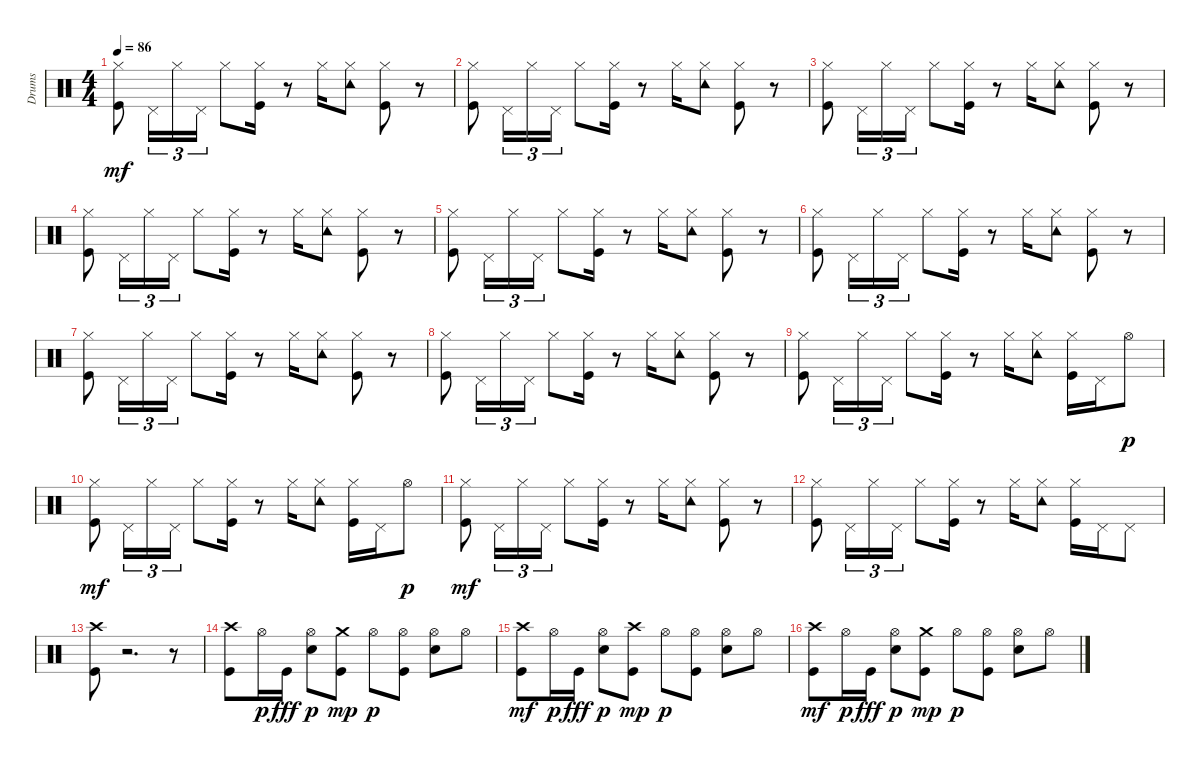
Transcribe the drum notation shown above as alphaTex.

\track ("Drums" "Drums") {instrument percussion}
\staff {score}
\articulation defaults
\ts (4 4)
\tempo 86
\clef neutral
\ks c
("Kick (hit)" "Hi-Hat (closed)").8{dy mf} "Pedal Hi-Hat (hit)".16{tu (3 2)} "Hi-Hat (closed)".16{tu (3 2)} "Pedal Hi-Hat (hit)".16{tu (3 2)} "Hi-Hat (closed)".8 ("Kick (hit)" "Hi-Hat (closed)").16 r.8 "Hi-Hat (closed)".16 ("Hi-Hat (closed)" "Tambourine (hit)").8 ("Kick (hit)" "Hi-Hat (closed)").8 r.8 |
("Kick (hit)" "Hi-Hat (closed)").8 "Pedal Hi-Hat (hit)".16{tu (3 2)} "Hi-Hat (closed)".16{tu (3 2)} "Pedal Hi-Hat (hit)".16{tu (3 2)} "Hi-Hat (closed)".8 ("Kick (hit)" "Hi-Hat (closed)").16 r.8 "Hi-Hat (closed)".16 ("Hi-Hat (closed)" "Tambourine (hit)").8 ("Kick (hit)" "Hi-Hat (closed)").8 r.8 |
("Kick (hit)" "Hi-Hat (closed)").8 "Pedal Hi-Hat (hit)".16{tu (3 2)} "Hi-Hat (closed)".16{tu (3 2)} "Pedal Hi-Hat (hit)".16{tu (3 2)} "Hi-Hat (closed)".8 ("Kick (hit)" "Hi-Hat (closed)").16 r.8 "Hi-Hat (closed)".16 ("Hi-Hat (closed)" "Tambourine (hit)").8 ("Kick (hit)" "Hi-Hat (closed)").8 r.8 |
("Kick (hit)" "Hi-Hat (closed)").8 "Pedal Hi-Hat (hit)".16{tu (3 2)} "Hi-Hat (closed)".16{tu (3 2)} "Pedal Hi-Hat (hit)".16{tu (3 2)} "Hi-Hat (closed)".8 ("Kick (hit)" "Hi-Hat (closed)").16 r.8 "Hi-Hat (closed)".16 ("Hi-Hat (closed)" "Tambourine (hit)").8 ("Kick (hit)" "Hi-Hat (closed)").8 r.8 |
("Kick (hit)" "Hi-Hat (closed)").8 "Pedal Hi-Hat (hit)".16{tu (3 2)} "Hi-Hat (closed)".16{tu (3 2)} "Pedal Hi-Hat (hit)".16{tu (3 2)} "Hi-Hat (closed)".8 ("Kick (hit)" "Hi-Hat (closed)").16 r.8 "Hi-Hat (closed)".16 ("Hi-Hat (closed)" "Tambourine (hit)").8 ("Kick (hit)" "Hi-Hat (closed)").8 r.8 |
("Kick (hit)" "Hi-Hat (closed)").8 "Pedal Hi-Hat (hit)".16{tu (3 2)} "Hi-Hat (closed)".16{tu (3 2)} "Pedal Hi-Hat (hit)".16{tu (3 2)} "Hi-Hat (closed)".8 ("Kick (hit)" "Hi-Hat (closed)").16 r.8 "Hi-Hat (closed)".16 ("Hi-Hat (closed)" "Tambourine (hit)").8 ("Kick (hit)" "Hi-Hat (closed)").8 r.8 |
("Kick (hit)" "Hi-Hat (closed)").8 "Pedal Hi-Hat (hit)".16{tu (3 2)} "Hi-Hat (closed)".16{tu (3 2)} "Pedal Hi-Hat (hit)".16{tu (3 2)} "Hi-Hat (closed)".8 ("Kick (hit)" "Hi-Hat (closed)").16 r.8 "Hi-Hat (closed)".16 ("Hi-Hat (closed)" "Tambourine (hit)").8 ("Kick (hit)" "Hi-Hat (closed)").8 r.8 |
("Kick (hit)" "Hi-Hat (closed)").8 "Pedal Hi-Hat (hit)".16{tu (3 2)} "Hi-Hat (closed)".16{tu (3 2)} "Pedal Hi-Hat (hit)".16{tu (3 2)} "Hi-Hat (closed)".8 ("Kick (hit)" "Hi-Hat (closed)").16 r.8 "Hi-Hat (closed)".16 ("Hi-Hat (closed)" "Tambourine (hit)").8 ("Kick (hit)" "Hi-Hat (closed)").8 r.8 |
("Kick (hit)" "Hi-Hat (closed)").8 "Pedal Hi-Hat (hit)".16{tu (3 2)} "Hi-Hat (closed)".16{tu (3 2)} "Pedal Hi-Hat (hit)".16{tu (3 2)} "Hi-Hat (closed)".8 ("Kick (hit)" "Hi-Hat (closed)").16 r.8 "Hi-Hat (closed)".16 ("Hi-Hat (closed)" "Tambourine (hit)").8 ("Kick (hit)" "Hi-Hat (closed)").16 "Pedal Hi-Hat (hit)".16 "Hi-Hat (open)".8{dy p} |
("Kick (hit)" "Hi-Hat (closed)").8{dy mf} "Pedal Hi-Hat (hit)".16{tu (3 2)} "Hi-Hat (closed)".16{tu (3 2)} "Pedal Hi-Hat (hit)".16{tu (3 2)} "Hi-Hat (closed)".8 ("Kick (hit)" "Hi-Hat (closed)").16 r.8 "Hi-Hat (closed)".16 ("Hi-Hat (closed)" "Tambourine (hit)").8 ("Kick (hit)" "Hi-Hat (closed)").16 "Pedal Hi-Hat (hit)".16 "Hi-Hat (open)".8{dy p} |
("Kick (hit)" "Hi-Hat (closed)").8{dy mf} "Pedal Hi-Hat (hit)".16{tu (3 2)} "Hi-Hat (closed)".16{tu (3 2)} "Pedal Hi-Hat (hit)".16{tu (3 2)} "Hi-Hat (closed)".8 ("Kick (hit)" "Hi-Hat (closed)").16 r.8 "Hi-Hat (closed)".16 ("Hi-Hat (closed)" "Tambourine (hit)").8 ("Kick (hit)" "Hi-Hat (closed)").8 r.8 |
("Kick (hit)" "Hi-Hat (closed)").8 "Pedal Hi-Hat (hit)".16{tu (3 2)} "Hi-Hat (closed)".16{tu (3 2)} "Pedal Hi-Hat (hit)".16{tu (3 2)} "Hi-Hat (closed)".8 ("Kick (hit)" "Hi-Hat (closed)").16 r.8 "Hi-Hat (closed)".16 ("Hi-Hat (closed)" "Tambourine (hit)").8 ("Kick (hit)" "Hi-Hat (closed)").16 "Pedal Hi-Hat (hit)".16 "Pedal Hi-Hat (hit)".8 |
("Kick (hit)" "Crash high (hit)").8 r.2{d} r.8 |
("Kick (hit)" "Crash high (hit)").8 "Hi-Hat (open)".16{dy p} "Kick (hit)".16{dy fff} ("Electric Snare (hit)" "Hi-Hat (open)").8{dy p} ("Kick (hit)" "Crash medium (hit)").8{dy mp} "Hi-Hat (open)".8{dy p} ("Kick (hit)" "Hi-Hat (open)").8 ("Electric Snare (hit)" "Hi-Hat (open)").8 "Hi-Hat (open)".8 |
("Kick (hit)" "Crash high (hit)").8{dy mf} "Hi-Hat (open)".16{dy p} "Kick (hit)".16{dy fff} ("Electric Snare (hit)" "Hi-Hat (open)").8{dy p} ("Kick (hit)" "Crash high (hit)").8{dy mp} "Hi-Hat (open)".8{dy p} ("Kick (hit)" "Hi-Hat (open)").8 ("Electric Snare (hit)" "Hi-Hat (open)").8 "Hi-Hat (open)".8 |
("Kick (hit)" "Crash high (hit)").8{dy mf} "Hi-Hat (open)".16{dy p} "Kick (hit)".16{dy fff} ("Electric Snare (hit)" "Hi-Hat (open)").8{dy p} ("Kick (hit)" "Crash medium (hit)").8{dy mp} "Hi-Hat (open)".8{dy p} ("Kick (hit)" "Hi-Hat (open)").8 ("Electric Snare (hit)" "Hi-Hat (open)").8 "Hi-Hat (open)".8
